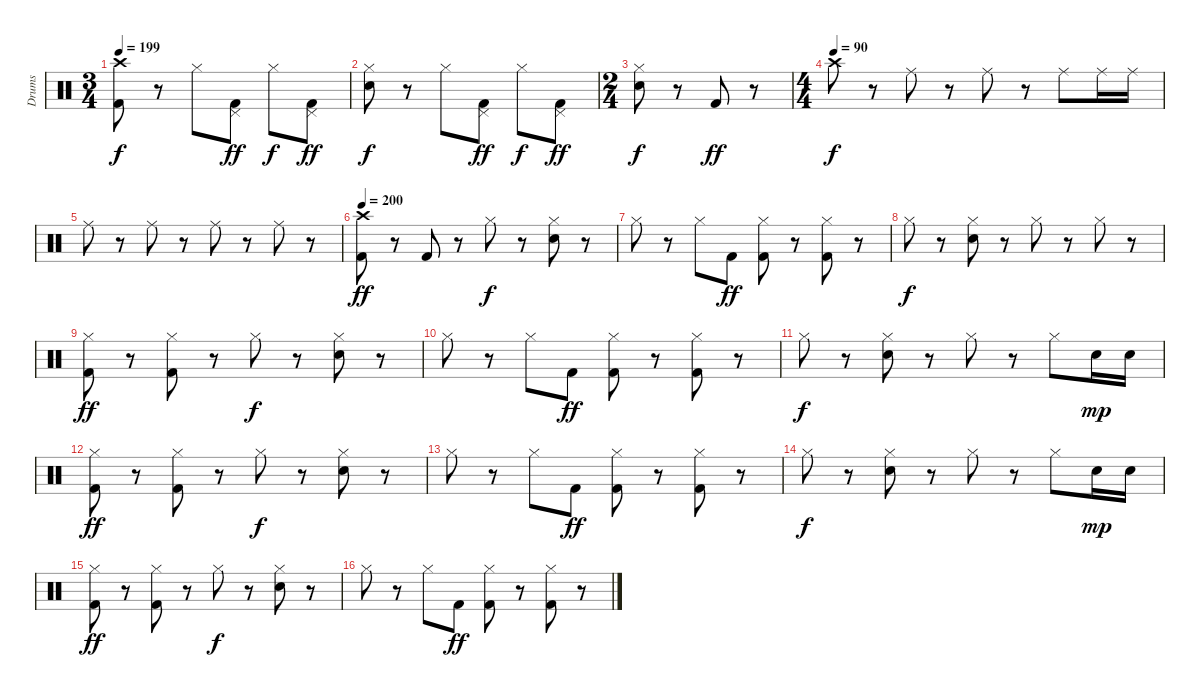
\track ("Drums" "Drums") {instrument percussion}
\staff {score}
\articulation defaults
\ts (3 4)
\tempo 199
\clef neutral
\ks c
("Crash high (hit)" "Kick (hit) 2").8{dy f} r.8 "Hi-Hat (closed)".8 ("Pedal Hi-Hat (hit)" "Kick (hit) 2").8{dy ff} "Hi-Hat (closed)".8{dy f} ("Pedal Hi-Hat (hit)" "Kick (hit) 2").8{dy ff} |
("Hi-Hat (closed)" "Electric Snare (hit)").8{dy f} r.8 "Hi-Hat (closed)".8 ("Pedal Hi-Hat (hit)" "Kick (hit) 2").8{dy ff} "Hi-Hat (closed)".8{dy f} ("Pedal Hi-Hat (hit)" "Kick (hit) 2").8{dy ff} |
\ts (2 4)
("Hi-Hat (closed)" "Electric Snare (hit)").8{dy f} r.8 "Kick (hit) 2".8{dy ff} r.8 |
\ts (4 4)
\tempo (90)
"Crash high (hit)".8{dy f} r.8 "Ride (middle)".8 r.8 "Ride (middle)".8 r.8 "Ride (middle)".8 "Ride (middle)".16 "Ride (middle)".16 |
"Ride (middle)".8 r.8 "Ride (middle)".8 r.8 "Ride (middle)".8 r.8 "Ride (middle)".8 r.8 |
\tempo 200
("Crash high (hit)" "Kick (hit) 2").8{dy ff} r.8 "Kick (hit) 2".8 r.8 "Hi-Hat (closed)".8{dy f} r.8 ("Hi-Hat (closed)" "Electric Snare (hit)").8 r.8 |
"Hi-Hat (closed)".8 r.8 "Hi-Hat (closed)".8 "Kick (hit) 2".8{dy ff} ("Hi-Hat (closed)" "Kick (hit) 2").8 r.8 ("Hi-Hat (closed)" "Kick (hit) 2").8 r.8 |
"Hi-Hat (closed)".8{dy f} r.8 ("Hi-Hat (closed)" "Electric Snare (hit)").8 r.8 "Hi-Hat (closed)".8 r.8 "Hi-Hat (closed)".8 r.8 |
("Hi-Hat (closed)" "Kick (hit) 2").8{dy ff} r.8 ("Hi-Hat (closed)" "Kick (hit) 2").8 r.8 "Hi-Hat (closed)".8{dy f} r.8 ("Hi-Hat (closed)" "Electric Snare (hit)").8 r.8 |
"Hi-Hat (closed)".8 r.8 "Hi-Hat (closed)".8 "Kick (hit) 2".8{dy ff} ("Hi-Hat (closed)" "Kick (hit) 2").8 r.8 ("Hi-Hat (closed)" "Kick (hit) 2").8 r.8 |
"Hi-Hat (closed)".8{dy f} r.8 ("Hi-Hat (closed)" "Electric Snare (hit)").8 r.8 "Hi-Hat (closed)".8 r.8 "Hi-Hat (closed)".8 "Electric Snare (hit)".16{dy mp} "Electric Snare (hit)".16 |
("Hi-Hat (closed)" "Kick (hit) 2").8{dy ff} r.8 ("Hi-Hat (closed)" "Kick (hit) 2").8 r.8 "Hi-Hat (closed)".8{dy f} r.8 ("Hi-Hat (closed)" "Electric Snare (hit)").8 r.8 |
"Hi-Hat (closed)".8 r.8 "Hi-Hat (closed)".8 "Kick (hit) 2".8{dy ff} ("Hi-Hat (closed)" "Kick (hit) 2").8 r.8 ("Hi-Hat (closed)" "Kick (hit) 2").8 r.8 |
"Hi-Hat (closed)".8{dy f} r.8 ("Hi-Hat (closed)" "Electric Snare (hit)").8 r.8 "Hi-Hat (closed)".8 r.8 "Hi-Hat (closed)".8 "Electric Snare (hit)".16{dy mp} "Electric Snare (hit)".16 |
("Hi-Hat (closed)" "Kick (hit) 2").8{dy ff} r.8 ("Hi-Hat (closed)" "Kick (hit) 2").8 r.8 "Hi-Hat (closed)".8{dy f} r.8 ("Hi-Hat (closed)" "Electric Snare (hit)").8 r.8 |
"Hi-Hat (closed)".8 r.8 "Hi-Hat (closed)".8 "Kick (hit) 2".8{dy ff} ("Hi-Hat (closed)" "Kick (hit) 2").8 r.8 ("Hi-Hat (closed)" "Kick (hit) 2").8 r.8
